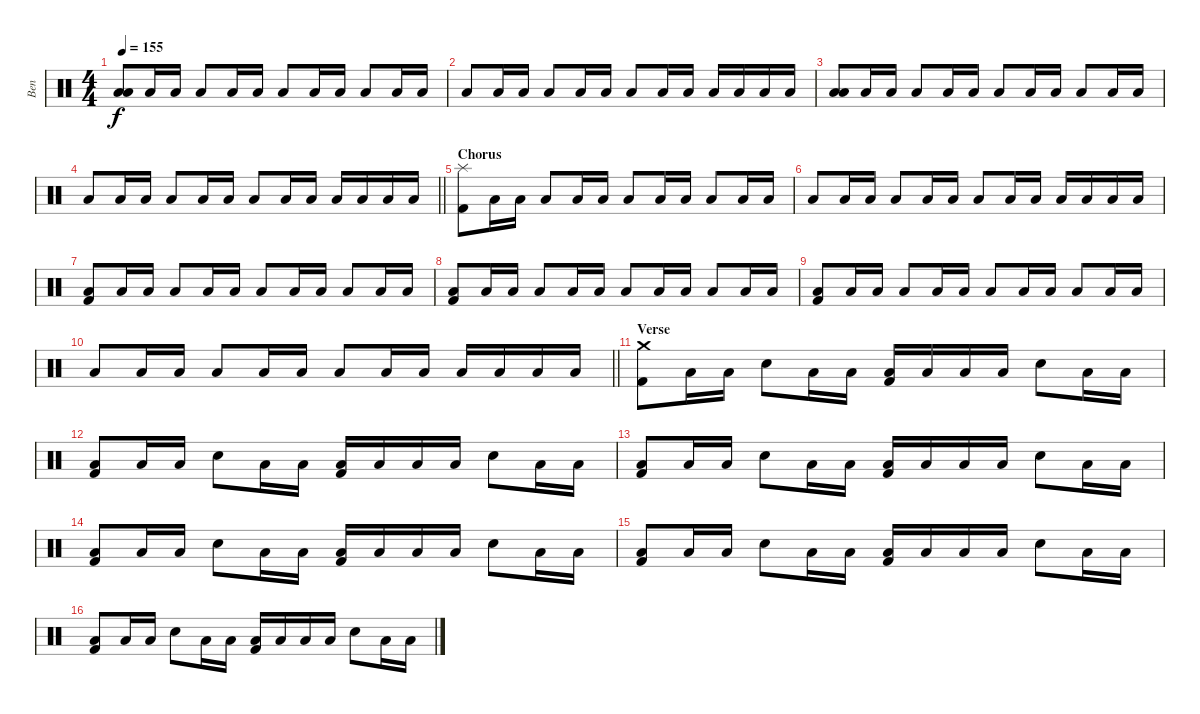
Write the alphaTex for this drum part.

\track ("Ben" "Ben") {instrument percussion}
\staff {score}
\articulation defaults
\ts (4 4)
\tempo 155
\clef neutral
\ks c
("Low Floor Tom (hit)" "Low Floor Tom (hit)").8{dy f} "Low Floor Tom (hit)".16 "Low Floor Tom (hit)".16 "Low Floor Tom (hit)".8 "Low Floor Tom (hit)".16 "Low Floor Tom (hit)".16 "Low Floor Tom (hit)".8 "Low Floor Tom (hit)".16 "Low Floor Tom (hit)".16 "Low Floor Tom (hit)".8 "Low Floor Tom (hit)".16 "Low Floor Tom (hit)".16 |
"Low Floor Tom (hit)".8 "Low Floor Tom (hit)".16 "Low Floor Tom (hit)".16 "Low Floor Tom (hit)".8 "Low Floor Tom (hit)".16 "Low Floor Tom (hit)".16 "Low Floor Tom (hit)".8 "Low Floor Tom (hit)".16 "Low Floor Tom (hit)".16 "Low Floor Tom (hit)".16 "Low Floor Tom (hit)".16 "Low Floor Tom (hit)".16 "Low Floor Tom (hit)".16 |
("Low Floor Tom (hit)" "Low Floor Tom (hit)").8 "Low Floor Tom (hit)".16 "Low Floor Tom (hit)".16 "Low Floor Tom (hit)".8 "Low Floor Tom (hit)".16 "Low Floor Tom (hit)".16 "Low Floor Tom (hit)".8 "Low Floor Tom (hit)".16 "Low Floor Tom (hit)".16 "Low Floor Tom (hit)".8 "Low Floor Tom (hit)".16 "Low Floor Tom (hit)".16 |
\barLineRight lightlight "Low Floor Tom (hit)".8 "Low Floor Tom (hit)".16 "Low Floor Tom (hit)".16 "Low Floor Tom (hit)".8 "Low Floor Tom (hit)".16 "Low Floor Tom (hit)".16 "Low Floor Tom (hit)".8 "Low Floor Tom (hit)".16 "Low Floor Tom (hit)".16 "Low Floor Tom (hit)".16 "Low Floor Tom (hit)".16 "Low Floor Tom (hit)".16 "Low Floor Tom (hit)".16
|
\section ("" "Chorus")
("Kick (hit) 2" "Splash (hit)").8 "Low Floor Tom (hit)".16 "Low Floor Tom (hit)".16 "Low Floor Tom (hit)".8 "Low Floor Tom (hit)".16 "Low Floor Tom (hit)".16 "Low Floor Tom (hit)".8 "Low Floor Tom (hit)".16 "Low Floor Tom (hit)".16 "Low Floor Tom (hit)".8 "Low Floor Tom (hit)".16 "Low Floor Tom (hit)".16 |
"Low Floor Tom (hit)".8 "Low Floor Tom (hit)".16 "Low Floor Tom (hit)".16 "Low Floor Tom (hit)".8 "Low Floor Tom (hit)".16 "Low Floor Tom (hit)".16 "Low Floor Tom (hit)".8 "Low Floor Tom (hit)".16 "Low Floor Tom (hit)".16 "Low Floor Tom (hit)".16 "Low Floor Tom (hit)".16 "Low Floor Tom (hit)".16 "Low Floor Tom (hit)".16 |
("Low Floor Tom (hit)" "Kick (hit) 2").8 "Low Floor Tom (hit)".16 "Low Floor Tom (hit)".16 "Low Floor Tom (hit)".8 "Low Floor Tom (hit)".16 "Low Floor Tom (hit)".16 "Low Floor Tom (hit)".8 "Low Floor Tom (hit)".16 "Low Floor Tom (hit)".16 "Low Floor Tom (hit)".8 "Low Floor Tom (hit)".16 "Low Floor Tom (hit)".16 |
("Low Floor Tom (hit)" "Kick (hit) 2").8 "Low Floor Tom (hit)".16 "Low Floor Tom (hit)".16 "Low Floor Tom (hit)".8 "Low Floor Tom (hit)".16 "Low Floor Tom (hit)".16 "Low Floor Tom (hit)".8 "Low Floor Tom (hit)".16 "Low Floor Tom (hit)".16 "Low Floor Tom (hit)".8 "Low Floor Tom (hit)".16 "Low Floor Tom (hit)".16 |
("Low Floor Tom (hit)" "Kick (hit) 2").8 "Low Floor Tom (hit)".16 "Low Floor Tom (hit)".16 "Low Floor Tom (hit)".8 "Low Floor Tom (hit)".16 "Low Floor Tom (hit)".16 "Low Floor Tom (hit)".8 "Low Floor Tom (hit)".16 "Low Floor Tom (hit)".16 "Low Floor Tom (hit)".8 "Low Floor Tom (hit)".16 "Low Floor Tom (hit)".16 |
\barLineRight lightlight "Low Floor Tom (hit)".8 "Low Floor Tom (hit)".16 "Low Floor Tom (hit)".16 "Low Floor Tom (hit)".8 "Low Floor Tom (hit)".16 "Low Floor Tom (hit)".16 "Low Floor Tom (hit)".8 "Low Floor Tom (hit)".16 "Low Floor Tom (hit)".16 "Low Floor Tom (hit)".16 "Low Floor Tom (hit)".16 "Low Floor Tom (hit)".16 "Low Floor Tom (hit)".16
|
\section ("" "Verse")
("Kick (hit) 2" "Crash medium (hit)").8 "Low Floor Tom (hit)".16 "Low Floor Tom (hit)".16 "Electric Snare (hit)".8 "Low Floor Tom (hit)".16 "Low Floor Tom (hit)".16 ("Low Floor Tom (hit)" "Kick (hit) 2").16 "Low Floor Tom (hit)".16 "Low Floor Tom (hit)".16 "Low Floor Tom (hit)".16 "Electric Snare (hit)".8 "Low Floor Tom (hit)".16 "Low Floor Tom (hit)".16 |
("Kick (hit) 2" "Low Floor Tom (hit)").8 "Low Floor Tom (hit)".16 "Low Floor Tom (hit)".16 "Electric Snare (hit)".8 "Low Floor Tom (hit)".16 "Low Floor Tom (hit)".16 ("Low Floor Tom (hit)" "Kick (hit) 2").16 "Low Floor Tom (hit)".16 "Low Floor Tom (hit)".16 "Low Floor Tom (hit)".16 "Electric Snare (hit)".8 "Low Floor Tom (hit)".16 "Low Floor Tom (hit)".16 |
("Kick (hit) 2" "Low Floor Tom (hit)").8 "Low Floor Tom (hit)".16 "Low Floor Tom (hit)".16 "Electric Snare (hit)".8 "Low Floor Tom (hit)".16 "Low Floor Tom (hit)".16 ("Low Floor Tom (hit)" "Kick (hit) 2").16 "Low Floor Tom (hit)".16 "Low Floor Tom (hit)".16 "Low Floor Tom (hit)".16 "Electric Snare (hit)".8 "Low Floor Tom (hit)".16 "Low Floor Tom (hit)".16 |
("Kick (hit) 2" "Low Floor Tom (hit)").8 "Low Floor Tom (hit)".16 "Low Floor Tom (hit)".16 "Electric Snare (hit)".8 "Low Floor Tom (hit)".16 "Low Floor Tom (hit)".16 ("Low Floor Tom (hit)" "Kick (hit) 2").16 "Low Floor Tom (hit)".16 "Low Floor Tom (hit)".16 "Low Floor Tom (hit)".16 "Electric Snare (hit)".8 "Low Floor Tom (hit)".16 "Low Floor Tom (hit)".16 |
("Kick (hit) 2" "Low Floor Tom (hit)").8 "Low Floor Tom (hit)".16 "Low Floor Tom (hit)".16 "Electric Snare (hit)".8 "Low Floor Tom (hit)".16 "Low Floor Tom (hit)".16 ("Low Floor Tom (hit)" "Kick (hit) 2").16 "Low Floor Tom (hit)".16 "Low Floor Tom (hit)".16 "Low Floor Tom (hit)".16 "Electric Snare (hit)".8 "Low Floor Tom (hit)".16 "Low Floor Tom (hit)".16 |
("Kick (hit) 2" "Low Floor Tom (hit)").8 "Low Floor Tom (hit)".16 "Low Floor Tom (hit)".16 "Electric Snare (hit)".8 "Low Floor Tom (hit)".16 "Low Floor Tom (hit)".16 ("Low Floor Tom (hit)" "Kick (hit) 2").16 "Low Floor Tom (hit)".16 "Low Floor Tom (hit)".16 "Low Floor Tom (hit)".16 "Electric Snare (hit)".8 "Low Floor Tom (hit)".16 "Low Floor Tom (hit)".16
